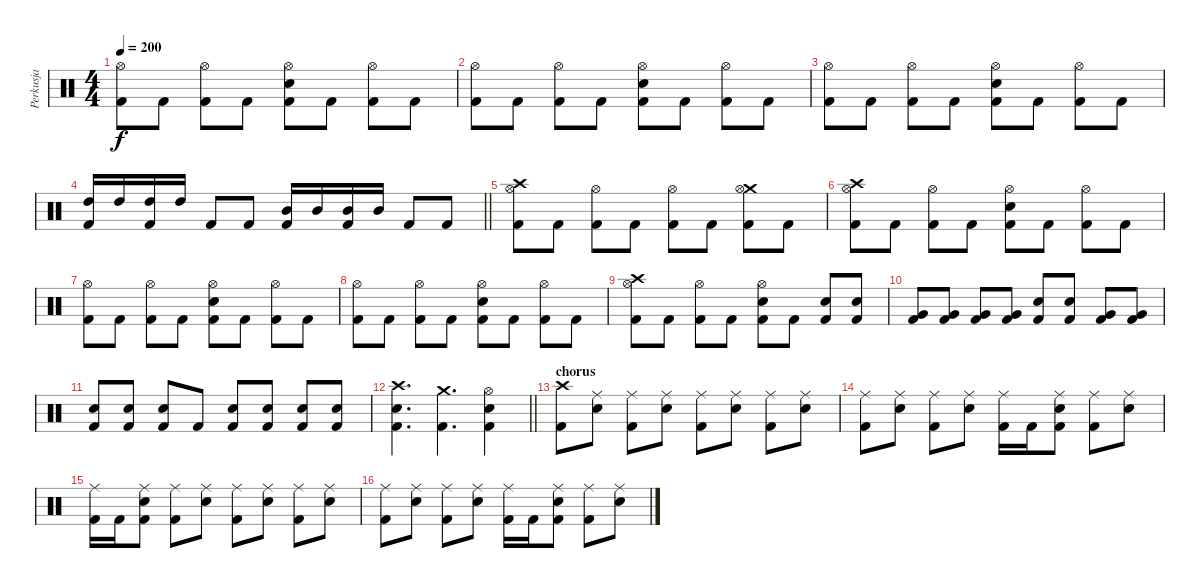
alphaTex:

\track ("Perkusja" "Perkusja") {instrument percussion}
\staff {score}
\articulation defaults
\ts (4 4)
\tempo 200
\clef neutral
\ks c
("Hi-Hat (open)" "Kick (hit) 2").8{dy f} "Kick (hit) 2".8 ("Hi-Hat (open)" "Kick (hit) 2").8 "Kick (hit) 2".8 ("Hi-Hat (open)" "Electric Snare (hit)" "Kick (hit) 2").8 "Kick (hit) 2".8 ("Hi-Hat (open)" "Kick (hit) 2").8 "Kick (hit) 2".8 |
("Hi-Hat (open)" "Kick (hit) 2").8 "Kick (hit) 2".8 ("Hi-Hat (open)" "Kick (hit) 2").8 "Kick (hit) 2".8 ("Hi-Hat (open)" "Electric Snare (hit)" "Kick (hit) 2").8 "Kick (hit) 2".8 ("Hi-Hat (open)" "Kick (hit) 2").8 "Kick (hit) 2".8 |
("Hi-Hat (open)" "Kick (hit) 2").8 "Kick (hit) 2".8 ("Hi-Hat (open)" "Kick (hit) 2").8 "Kick (hit) 2".8 ("Hi-Hat (open)" "Electric Snare (hit)" "Kick (hit) 2").8 "Kick (hit) 2".8 ("Hi-Hat (open)" "Kick (hit) 2").8 "Kick (hit) 2".8 |
\barLineRight lightlight
("High Tom (hit)" "Kick (hit) 2").16 "High Tom (hit)".16 ("High Tom (hit)" "Kick (hit) 2").16 "High Tom (hit)".16 "Kick (hit) 2".8 "Kick (hit) 2".8 ("Mid Tom (hit)" "Kick (hit) 2").16 "Mid Tom (hit)".16 ("Mid Tom (hit)" "Kick (hit) 2").16 "Mid Tom (hit)".16 "Kick (hit) 2".8 "Kick (hit) 2".8 |
("Crash high (hit)" "Hi-Hat (open)" "Kick (hit) 2").8 "Kick (hit) 2".8 ("Hi-Hat (open)" "Kick (hit) 2").8 "Kick (hit) 2".8 ("Hi-Hat (open)" "Kick (hit) 2").8 "Kick (hit) 2".8 ("Crash medium (hit)" "Hi-Hat (open)" "Kick (hit) 2").8 "Kick (hit) 2".8 |
("Crash high (hit)" "Hi-Hat (open)" "Kick (hit) 2").8 "Kick (hit) 2".8 ("Hi-Hat (open)" "Kick (hit) 2").8 "Kick (hit) 2".8 ("Hi-Hat (open)" "Electric Snare (hit)" "Kick (hit) 2").8 "Kick (hit) 2".8 ("Hi-Hat (open)" "Kick (hit) 2").8 "Kick (hit) 2".8 |
("Hi-Hat (open)" "Kick (hit) 2").8 "Kick (hit) 2".8 ("Hi-Hat (open)" "Kick (hit) 2").8 "Kick (hit) 2".8 ("Hi-Hat (open)" "Electric Snare (hit)" "Kick (hit) 2").8 "Kick (hit) 2".8 ("Hi-Hat (open)" "Kick (hit) 2").8 "Kick (hit) 2".8 |
("Hi-Hat (open)" "Kick (hit) 2").8 "Kick (hit) 2".8 ("Hi-Hat (open)" "Kick (hit) 2").8 "Kick (hit) 2".8 ("Hi-Hat (open)" "Electric Snare (hit)" "Kick (hit) 2").8 "Kick (hit) 2".8 ("Hi-Hat (open)" "Kick (hit) 2").8 "Kick (hit) 2".8 |
("Crash high (hit)" "Hi-Hat (open)" "Kick (hit) 2").8 "Kick (hit) 2".8 ("Hi-Hat (open)" "Kick (hit) 2").8 "Kick (hit) 2".8 ("Hi-Hat (open)" "Electric Snare (hit)" "Kick (hit) 2").8 "Kick (hit) 2".8 ("Electric Snare (hit)" "Kick (hit) 2").8 ("Electric Snare (hit)" "Kick (hit) 2").8 |
("Very Low Tom (hit)" "Kick (hit) 2").8 ("Very Low Tom (hit)" "Kick (hit) 2").8 ("Very Low Tom (hit)" "Kick (hit) 2").8 ("Very Low Tom (hit)" "Kick (hit) 2").8 ("Electric Snare (hit)" "Kick (hit) 2").8 ("Electric Snare (hit)" "Kick (hit) 2").8 ("Very Low Tom (hit)" "Kick (hit) 2").8 ("Very Low Tom (hit)" "Kick (hit) 2").8 |
("Electric Snare (hit)" "Kick (hit) 2").8 ("Electric Snare (hit)" "Kick (hit) 2").8 ("Electric Snare (hit)" "Kick (hit) 2").8 "Kick (hit) 2".8 ("Electric Snare (hit)" "Kick (hit) 2").8 ("Electric Snare (hit)" "Kick (hit) 2").8 ("Electric Snare (hit)" "Kick (hit) 2").8 ("Electric Snare (hit)" "Kick (hit) 2").8 |
\barLineRight lightlight
("Crash high (hit)" "Electric Snare (hit)" "Kick (hit) 2").4{d} ("Crash medium (hit)" "Kick (hit) 2").4{d} ("Hi-Hat (open)" "Electric Snare (hit)" "Kick (hit) 2").4 |
\section ("" "chorus")
("Crash high (hit)" "Kick (hit) 2").8 ("Ride (middle)" "Electric Snare (hit)").8 ("Ride (middle)" "Kick (hit) 2").8 ("Ride (middle)" "Electric Snare (hit)").8 ("Ride (middle)" "Kick (hit) 2").8 ("Ride (middle)" "Electric Snare (hit)").8 ("Ride (middle)" "Kick (hit) 2").8 ("Ride (middle)" "Electric Snare (hit)").8 |
("Ride (middle)" "Kick (hit) 2").8 ("Ride (middle)" "Electric Snare (hit)").8 ("Ride (middle)" "Kick (hit) 2").8 ("Ride (middle)" "Electric Snare (hit)").8 ("Ride (middle)" "Kick (hit) 2").16 "Kick (hit) 2".16 ("Ride (middle)" "Electric Snare (hit)" "Kick (hit) 2").8 ("Ride (middle)" "Kick (hit) 2").8 ("Ride (middle)" "Electric Snare (hit)").8 |
("Ride (middle)" "Kick (hit) 2").16 "Kick (hit) 2".16 ("Ride (middle)" "Electric Snare (hit)" "Kick (hit) 2").8 ("Ride (middle)" "Kick (hit) 2").8 ("Ride (middle)" "Electric Snare (hit)").8 ("Ride (middle)" "Kick (hit) 2").8 ("Ride (middle)" "Electric Snare (hit)").8 ("Ride (middle)" "Kick (hit) 2").8 ("Ride (middle)" "Electric Snare (hit)").8 |
("Ride (middle)" "Kick (hit) 2").8 ("Ride (middle)" "Electric Snare (hit)").8 ("Ride (middle)" "Kick (hit) 2").8 ("Ride (middle)" "Electric Snare (hit)").8 ("Ride (middle)" "Kick (hit) 2").16 "Kick (hit) 2".16 ("Ride (middle)" "Electric Snare (hit)" "Kick (hit) 2").8 ("Ride (middle)" "Kick (hit) 2").8 ("Ride (middle)" "Electric Snare (hit)").8
